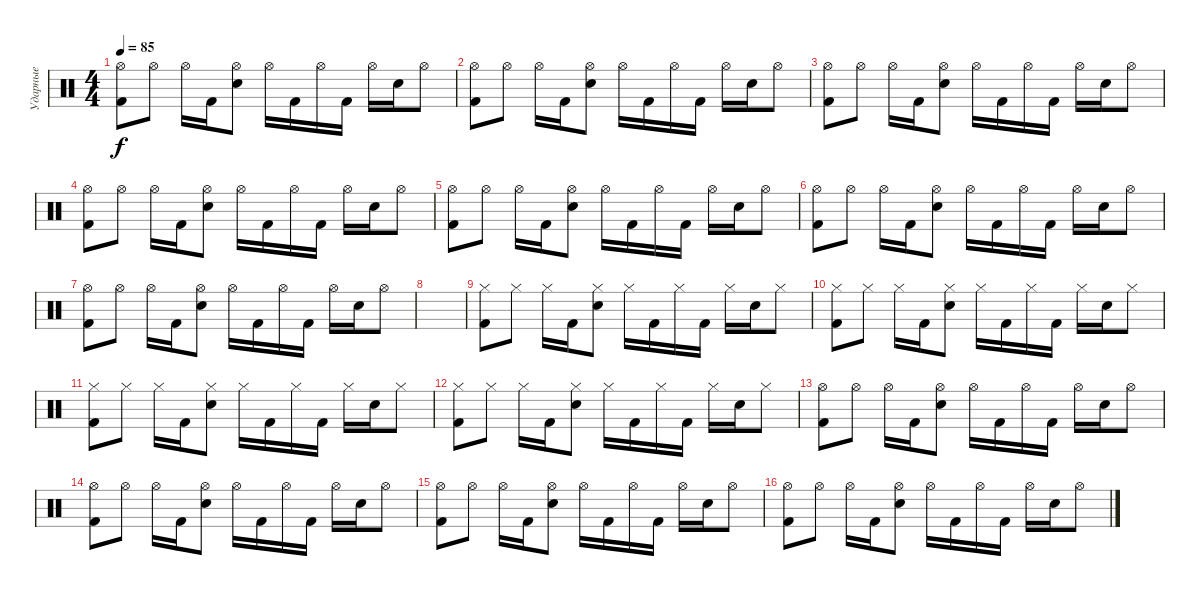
\track ("Ударные" "Ударные") {instrument percussion}
\staff {score}
\articulation defaults
\ts (4 4)
\tempo 85
\clef neutral
\ks c
("Hi-Hat (open)" "Kick (hit) 2").8{dy f} "Hi-Hat (open)".8 "Hi-Hat (open)".16 "Kick (hit) 2".16 ("Hi-Hat (open)" "Electric Snare (hit)").8 "Hi-Hat (open)".16 "Kick (hit) 2".16 "Hi-Hat (open)".16 "Kick (hit) 2".16 "Hi-Hat (open)".16 "Electric Snare (hit)".16 "Hi-Hat (open)".8 |
("Hi-Hat (open)" "Kick (hit) 2").8 "Hi-Hat (open)".8 "Hi-Hat (open)".16 "Kick (hit) 2".16 ("Hi-Hat (open)" "Electric Snare (hit)").8 "Hi-Hat (open)".16 "Kick (hit) 2".16 "Hi-Hat (open)".16 "Kick (hit) 2".16 "Hi-Hat (open)".16 "Electric Snare (hit)".16 "Hi-Hat (open)".8 |
("Hi-Hat (open)" "Kick (hit) 2").8 "Hi-Hat (open)".8 "Hi-Hat (open)".16 "Kick (hit) 2".16 ("Hi-Hat (open)" "Electric Snare (hit)").8 "Hi-Hat (open)".16 "Kick (hit) 2".16 "Hi-Hat (open)".16 "Kick (hit) 2".16 "Hi-Hat (open)".16 "Electric Snare (hit)".16 "Hi-Hat (open)".8 |
("Hi-Hat (open)" "Kick (hit) 2").8 "Hi-Hat (open)".8 "Hi-Hat (open)".16 "Kick (hit) 2".16 ("Hi-Hat (open)" "Electric Snare (hit)").8 "Hi-Hat (open)".16 "Kick (hit) 2".16 "Hi-Hat (open)".16 "Kick (hit) 2".16 "Hi-Hat (open)".16 "Electric Snare (hit)".16 "Hi-Hat (open)".8 |
("Hi-Hat (open)" "Kick (hit) 2").8 "Hi-Hat (open)".8 "Hi-Hat (open)".16 "Kick (hit) 2".16 ("Hi-Hat (open)" "Electric Snare (hit)").8 "Hi-Hat (open)".16 "Kick (hit) 2".16 "Hi-Hat (open)".16 "Kick (hit) 2".16 "Hi-Hat (open)".16 "Electric Snare (hit)".16 "Hi-Hat (open)".8 |
("Hi-Hat (open)" "Kick (hit) 2").8 "Hi-Hat (open)".8 "Hi-Hat (open)".16 "Kick (hit) 2".16 ("Hi-Hat (open)" "Electric Snare (hit)").8 "Hi-Hat (open)".16 "Kick (hit) 2".16 "Hi-Hat (open)".16 "Kick (hit) 2".16 "Hi-Hat (open)".16 "Electric Snare (hit)".16 "Hi-Hat (open)".8 |
("Hi-Hat (open)" "Kick (hit) 2").8 "Hi-Hat (open)".8 "Hi-Hat (open)".16 "Kick (hit) 2".16 ("Hi-Hat (open)" "Electric Snare (hit)").8 "Hi-Hat (open)".16 "Kick (hit) 2".16 "Hi-Hat (open)".16 "Kick (hit) 2".16 "Hi-Hat (open)".16 "Electric Snare (hit)".16 "Hi-Hat (open)".8 |
|
("Hi-Hat (closed)" "Kick (hit) 2").8 "Hi-Hat (closed)".8 "Hi-Hat (closed)".16 "Kick (hit) 2".16 ("Hi-Hat (closed)" "Electric Snare (hit)").8 "Hi-Hat (closed)".16 "Kick (hit) 2".16 "Hi-Hat (closed)".16 "Kick (hit) 2".16 "Hi-Hat (closed)".16 "Electric Snare (hit)".16 "Hi-Hat (closed)".8 |
("Hi-Hat (closed)" "Kick (hit) 2").8 "Hi-Hat (closed)".8 "Hi-Hat (closed)".16 "Kick (hit) 2".16 ("Hi-Hat (closed)" "Electric Snare (hit)").8 "Hi-Hat (closed)".16 "Kick (hit) 2".16 "Hi-Hat (closed)".16 "Kick (hit) 2".16 "Hi-Hat (closed)".16 "Electric Snare (hit)".16 "Hi-Hat (closed)".8 |
("Hi-Hat (closed)" "Kick (hit) 2").8 "Hi-Hat (closed)".8 "Hi-Hat (closed)".16 "Kick (hit) 2".16 ("Hi-Hat (closed)" "Electric Snare (hit)").8 "Hi-Hat (closed)".16 "Kick (hit) 2".16 "Hi-Hat (closed)".16 "Kick (hit) 2".16 "Hi-Hat (closed)".16 "Electric Snare (hit)".16 "Hi-Hat (closed)".8 |
("Hi-Hat (closed)" "Kick (hit) 2").8 "Hi-Hat (closed)".8 "Hi-Hat (closed)".16 "Kick (hit) 2".16 ("Hi-Hat (closed)" "Electric Snare (hit)").8 "Hi-Hat (closed)".16 "Kick (hit) 2".16 "Hi-Hat (closed)".16 "Kick (hit) 2".16 "Hi-Hat (closed)".16 "Electric Snare (hit)".16 "Hi-Hat (closed)".8 |
("Hi-Hat (open)" "Kick (hit) 2").8 "Hi-Hat (open)".8 "Hi-Hat (open)".16 "Kick (hit) 2".16 ("Hi-Hat (open)" "Electric Snare (hit)").8 "Hi-Hat (open)".16 "Kick (hit) 2".16 "Hi-Hat (open)".16 "Kick (hit) 2".16 "Hi-Hat (open)".16 "Electric Snare (hit)".16 "Hi-Hat (open)".8 |
("Hi-Hat (open)" "Kick (hit) 2").8 "Hi-Hat (open)".8 "Hi-Hat (open)".16 "Kick (hit) 2".16 ("Hi-Hat (open)" "Electric Snare (hit)").8 "Hi-Hat (open)".16 "Kick (hit) 2".16 "Hi-Hat (open)".16 "Kick (hit) 2".16 "Hi-Hat (open)".16 "Electric Snare (hit)".16 "Hi-Hat (open)".8 |
("Hi-Hat (open)" "Kick (hit) 2").8 "Hi-Hat (open)".8 "Hi-Hat (open)".16 "Kick (hit) 2".16 ("Hi-Hat (open)" "Electric Snare (hit)").8 "Hi-Hat (open)".16 "Kick (hit) 2".16 "Hi-Hat (open)".16 "Kick (hit) 2".16 "Hi-Hat (open)".16 "Electric Snare (hit)".16 "Hi-Hat (open)".8 |
("Hi-Hat (open)" "Kick (hit) 2").8 "Hi-Hat (open)".8 "Hi-Hat (open)".16 "Kick (hit) 2".16 ("Hi-Hat (open)" "Electric Snare (hit)").8 "Hi-Hat (open)".16 "Kick (hit) 2".16 "Hi-Hat (open)".16 "Kick (hit) 2".16 "Hi-Hat (open)".16 "Electric Snare (hit)".16 "Hi-Hat (open)".8
